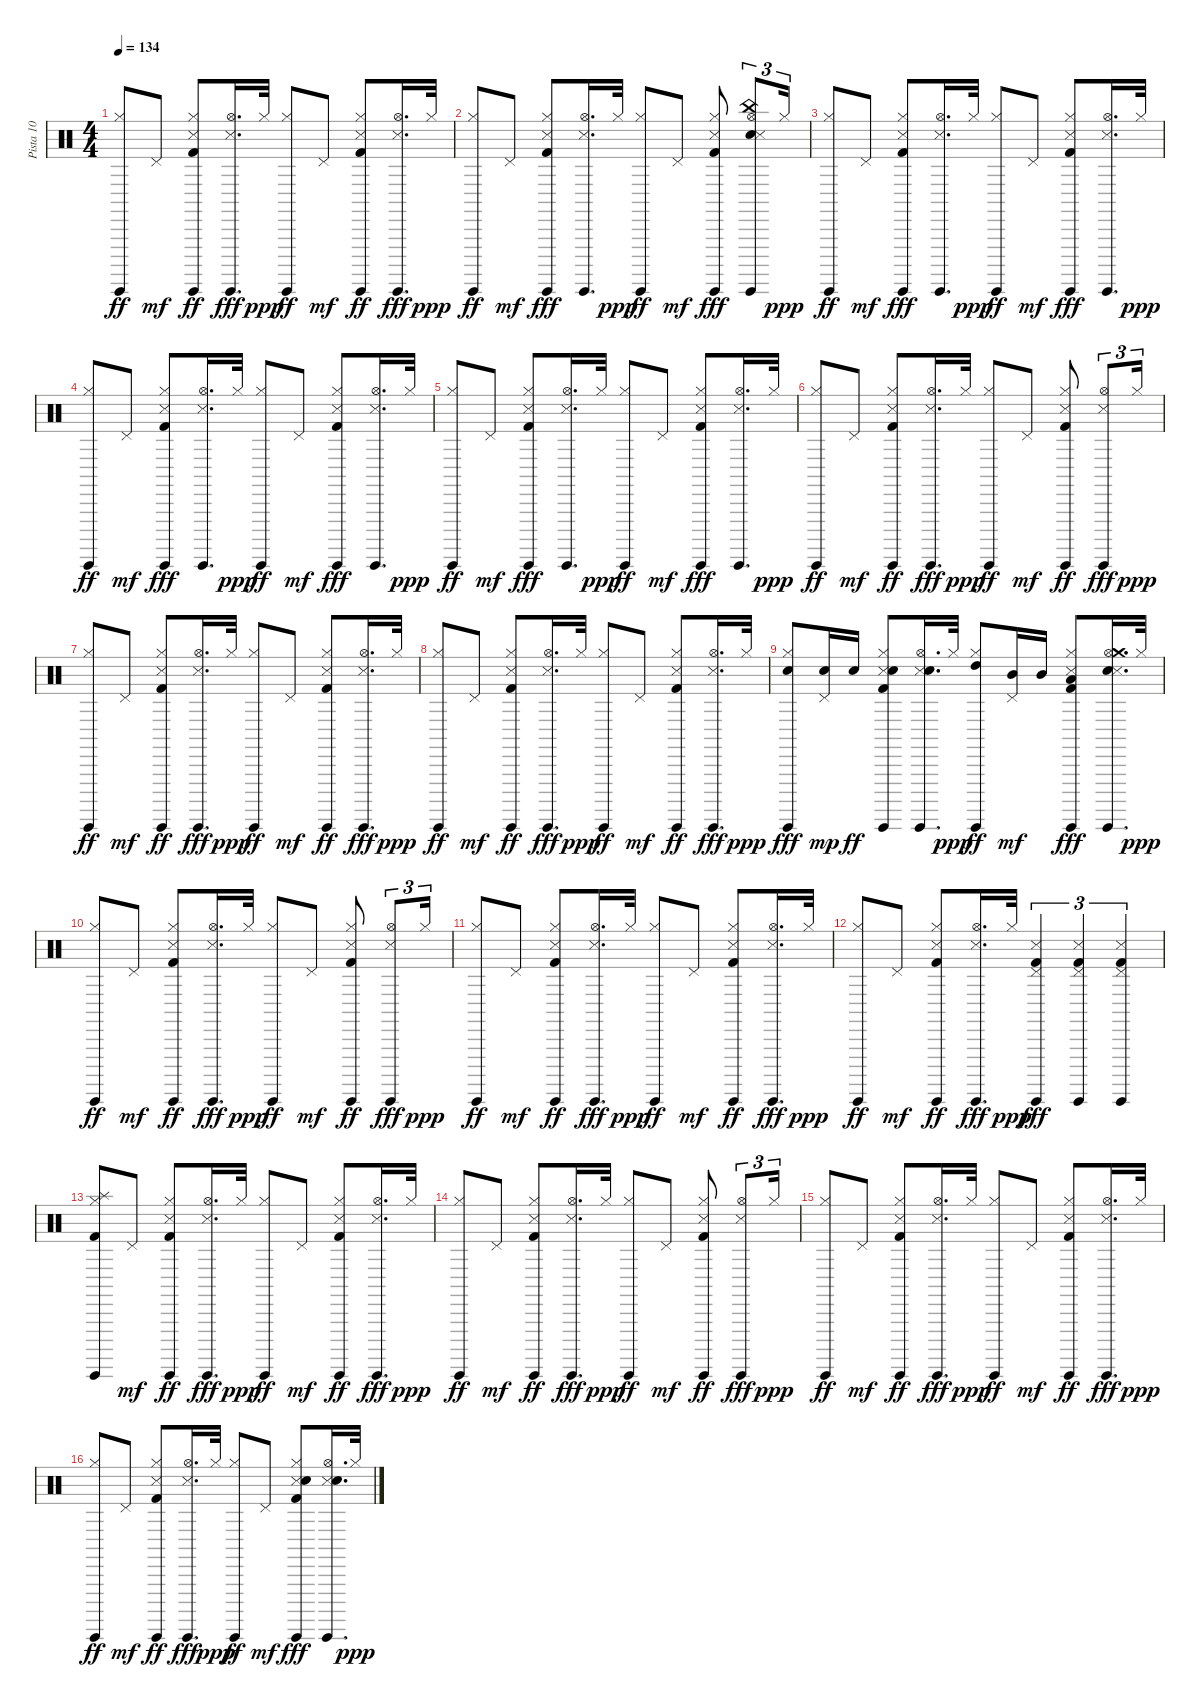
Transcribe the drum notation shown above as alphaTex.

\track ("Pista 10" "Pista 10") {instrument percussion}
\staff {score}
\articulation defaults
\ts (4 4)
\tempo 134
\clef neutral
\ks c
("Guiro (hit)" "Hi-Hat (closed)").8{dy ff} "Pedal Hi-Hat (hit)".8{dy mf} ("Guiro (hit)" "Hi-Hat (closed)" "Snare (side stick) 3" "Kick (hit) 2").8{dy ff} ("Guiro (hit)" "Hi-Hat (open)" "Snare (side stick) 3").16{d dy fff} "Hi-Hat (closed)".32{dy ppp} ("Guiro (hit)" "Hi-Hat (closed)").8{dy ff} "Pedal Hi-Hat (hit)".8{dy mf} ("Guiro (hit)" "Hi-Hat (closed)" "Snare (side stick) 3" "Kick (hit) 2").8{dy ff} ("Guiro (hit)" "Hi-Hat (open)" "Snare (side stick) 3").16{d dy fff} "Hi-Hat (closed)".32{dy ppp} |
("Guiro (hit)" "Hi-Hat (closed)").8{dy ff} "Pedal Hi-Hat (hit)".8{dy mf} ("Guiro (hit)" "Hi-Hat (closed)" "Kick (hit) 2" "Snare (side stick) 3").8{dy fff} ("Guiro (hit)" "Hi-Hat (open)" "Snare (side stick) 3").16{d} "Hi-Hat (closed)".32{dy ppp} ("Guiro (hit)" "Hi-Hat (closed)").8{dy ff} "Pedal Hi-Hat (hit)".8{dy mf} ("Guiro (hit)" "Hi-Hat (closed)" "Kick (hit) 2" "Snare (side stick) 3").8{dy fff} ("Snare (hit) 2" "Guiro (hit)" "Hi-Hat (open)" "China (hit)" "Snare (side stick) 3").8{tu (3 2)} "Hi-Hat (closed)".16{tu (3 2) dy ppp} |
("Guiro (hit)" "Hi-Hat (closed)").8{dy ff} "Pedal Hi-Hat (hit)".8{dy mf} ("Guiro (hit)" "Hi-Hat (closed)" "Kick (hit) 2" "Snare (side stick) 3").8{dy fff} ("Guiro (hit)" "Hi-Hat (open)" "Snare (side stick) 3").16{d} "Hi-Hat (closed)".32{dy ppp} ("Guiro (hit)" "Hi-Hat (closed)").8{dy ff} "Pedal Hi-Hat (hit)".8{dy mf} ("Guiro (hit)" "Hi-Hat (closed)" "Kick (hit) 2" "Snare (side stick) 3").8{dy fff} ("Guiro (hit)" "Hi-Hat (open)" "Snare (side stick) 3").16{d} "Hi-Hat (closed)".32{dy ppp} |
("Guiro (hit)" "Hi-Hat (closed)").8{dy ff} "Pedal Hi-Hat (hit)".8{dy mf} ("Guiro (hit)" "Hi-Hat (closed)" "Kick (hit) 2" "Snare (side stick) 3").8{dy fff} ("Guiro (hit)" "Hi-Hat (open)" "Snare (side stick) 3").16{d} "Hi-Hat (closed)".32{dy ppp} ("Guiro (hit)" "Hi-Hat (closed)").8{dy ff} "Pedal Hi-Hat (hit)".8{dy mf} ("Guiro (hit)" "Hi-Hat (closed)" "Kick (hit) 2" "Snare (side stick) 3").8{dy fff} ("Guiro (hit)" "Hi-Hat (open)" "Snare (side stick) 3").16{d} "Hi-Hat (closed)".32{dy ppp} |
("Guiro (hit)" "Hi-Hat (closed)").8{dy ff} "Pedal Hi-Hat (hit)".8{dy mf} ("Guiro (hit)" "Hi-Hat (closed)" "Kick (hit) 2" "Snare (side stick) 3").8{dy fff} ("Guiro (hit)" "Hi-Hat (open)" "Snare (side stick) 3").16{d} "Hi-Hat (closed)".32{dy ppp} ("Guiro (hit)" "Hi-Hat (closed)").8{dy ff} "Pedal Hi-Hat (hit)".8{dy mf} ("Guiro (hit)" "Hi-Hat (closed)" "Kick (hit) 2" "Snare (side stick) 3").8{dy fff} ("Guiro (hit)" "Hi-Hat (open)" "Snare (side stick) 3").16{d} "Hi-Hat (closed)".32{dy ppp} |
("Guiro (hit)" "Hi-Hat (closed)").8{dy ff} "Pedal Hi-Hat (hit)".8{dy mf} ("Guiro (hit)" "Hi-Hat (closed)" "Snare (side stick) 3" "Kick (hit) 2").8{dy ff} ("Guiro (hit)" "Hi-Hat (open)" "Snare (side stick) 3").16{d dy fff} "Hi-Hat (closed)".32{dy ppp} ("Guiro (hit)" "Hi-Hat (closed)").8{dy ff} "Pedal Hi-Hat (hit)".8{dy mf} ("Guiro (hit)" "Hi-Hat (closed)" "Snare (side stick) 3" "Kick (hit) 2").8{dy ff} ("Guiro (hit)" "Hi-Hat (open)" "Snare (side stick) 3").8{tu (3 2) dy fff} "Hi-Hat (closed)".16{tu (3 2) dy ppp} |
("Guiro (hit)" "Hi-Hat (closed)").8{dy ff} "Pedal Hi-Hat (hit)".8{dy mf} ("Guiro (hit)" "Hi-Hat (closed)" "Snare (side stick) 3" "Kick (hit) 2").8{dy ff} ("Guiro (hit)" "Hi-Hat (open)" "Snare (side stick) 3").16{d dy fff} "Hi-Hat (closed)".32{dy ppp} ("Guiro (hit)" "Hi-Hat (closed)").8{dy ff} "Pedal Hi-Hat (hit)".8{dy mf} ("Guiro (hit)" "Hi-Hat (closed)" "Snare (side stick) 3" "Kick (hit) 2").8{dy ff} ("Guiro (hit)" "Hi-Hat (open)" "Snare (side stick) 3").16{d dy fff} "Hi-Hat (closed)".32{dy ppp} |
("Guiro (hit)" "Hi-Hat (closed)").8{dy ff} "Pedal Hi-Hat (hit)".8{dy mf} ("Guiro (hit)" "Hi-Hat (closed)" "Snare (side stick) 3" "Kick (hit) 2").8{dy ff} ("Guiro (hit)" "Hi-Hat (open)" "Snare (side stick) 3").16{d dy fff} "Hi-Hat (closed)".32{dy ppp} ("Guiro (hit)" "Hi-Hat (closed)").8{dy ff} "Pedal Hi-Hat (hit)".8{dy mf} ("Guiro (hit)" "Hi-Hat (closed)" "Snare (side stick) 3" "Kick (hit) 2").8{dy ff} ("Guiro (hit)" "Hi-Hat (open)" "Snare (side stick) 3").16{d dy fff} "Hi-Hat (closed)".32{dy ppp} |
("Guiro (hit)" "Hi-Hat (closed)" "Electric Snare (hit)").8{dy fff} ("Pedal Hi-Hat (hit)" "Electric Snare (hit)").16{dy mp} "Electric Snare (hit)".16{dy ff} ("Guiro (hit)" "Hi-Hat (closed)" "Snare (side stick) 3" "Kick (hit) 2" "Electric Snare (hit)").8 ("Guiro (hit)" "Hi-Hat (open)" "Snare (side stick) 3" "Electric Snare (hit)").16{d} "Hi-Hat (closed)".32{dy ppp} ("Guiro (hit)" "Hi-Hat (closed)" "High Tom (hit)").8{dy ff} ("Pedal Hi-Hat (hit)" "Mid Tom (hit)").16{dy mf} "Mid Tom (hit)".16 ("Guiro (hit)" "Hi-Hat (closed)" "Snare (side stick) 3" "Kick (hit) 2" "Low Tom (hit)").8{dy fff} ("Electric Snare (hit)" "Guiro (hit)" "Hi-Hat (open)" "Snare (side stick) 3" "Crash medium (hit)").16{d} "Hi-Hat (closed)".32{dy ppp} |
("Hi-Hat (closed)" "Guiro (hit)").8{dy ff} "Pedal Hi-Hat (hit)".8{dy mf} ("Hi-Hat (closed)" "Guiro (hit)" "Snare (side stick) 3" "Kick (hit) 2").8{dy ff} ("Hi-Hat (open)" "Guiro (hit)" "Snare (side stick) 3").16{d dy fff} "Hi-Hat (closed)".32{dy ppp} ("Hi-Hat (closed)" "Guiro (hit)").8{dy ff} "Pedal Hi-Hat (hit)".8{dy mf} ("Hi-Hat (closed)" "Guiro (hit)" "Snare (side stick) 3" "Kick (hit) 2").8{dy ff} ("Hi-Hat (open)" "Guiro (hit)" "Snare (side stick) 3").8{tu (3 2) dy fff} "Hi-Hat (closed)".16{tu (3 2) dy ppp} |
("Hi-Hat (closed)" "Guiro (hit)").8{dy ff} "Pedal Hi-Hat (hit)".8{dy mf} ("Hi-Hat (closed)" "Guiro (hit)" "Snare (side stick) 3" "Kick (hit) 2").8{dy ff} ("Hi-Hat (open)" "Guiro (hit)" "Snare (side stick) 3").16{d dy fff} "Hi-Hat (closed)".32{dy ppp} ("Hi-Hat (closed)" "Guiro (hit)").8{dy ff} "Pedal Hi-Hat (hit)".8{dy mf} ("Hi-Hat (closed)" "Guiro (hit)" "Snare (side stick) 3" "Kick (hit) 2").8{dy ff} ("Hi-Hat (open)" "Guiro (hit)" "Snare (side stick) 3").16{d dy fff} "Hi-Hat (closed)".32{dy ppp} |
("Hi-Hat (closed)" "Guiro (hit)").8{dy ff} "Pedal Hi-Hat (hit)".8{dy mf} ("Hi-Hat (closed)" "Guiro (hit)" "Snare (side stick) 3" "Kick (hit) 2").8{dy ff} ("Hi-Hat (open)" "Guiro (hit)" "Snare (side stick) 3").16{d dy fff} "Hi-Hat (closed)".32{dy ppp} ("Snare (side stick) 3" "Kick (hit) 2" "Pedal Hi-Hat (hit)" "Guiro (hit)").4{tu (3 2) dy fff} ("Snare (side stick) 3" "Kick (hit) 2" "Pedal Hi-Hat (hit)" "Guiro (hit)").4{tu (3 2)} ("Snare (side stick) 3" "Kick (hit) 2" "Pedal Hi-Hat (hit)" "Guiro (hit)").4{tu (3 2)} |
("Hi-Hat (closed)" "Guiro (hit)" "Splash (hit)" "Kick (hit) 2").8 "Pedal Hi-Hat (hit)".8{dy mf} ("Hi-Hat (closed)" "Guiro (hit)" "Snare (side stick) 3" "Kick (hit) 2").8{dy ff} ("Hi-Hat (open)" "Guiro (hit)" "Snare (side stick) 3").16{d dy fff} "Hi-Hat (closed)".32{dy ppp} ("Hi-Hat (closed)" "Guiro (hit)").8{dy ff} "Pedal Hi-Hat (hit)".8{dy mf} ("Hi-Hat (closed)" "Guiro (hit)" "Snare (side stick) 3" "Kick (hit) 2").8{dy ff} ("Hi-Hat (open)" "Guiro (hit)" "Snare (side stick) 3").16{d dy fff} "Hi-Hat (closed)".32{dy ppp} |
("Hi-Hat (closed)" "Guiro (hit)").8{dy ff} "Pedal Hi-Hat (hit)".8{dy mf} ("Hi-Hat (closed)" "Guiro (hit)" "Snare (side stick) 3" "Kick (hit) 2").8{dy ff} ("Hi-Hat (open)" "Guiro (hit)" "Snare (side stick) 3").16{d dy fff} "Hi-Hat (closed)".32{dy ppp} ("Hi-Hat (closed)" "Guiro (hit)").8{dy ff} "Pedal Hi-Hat (hit)".8{dy mf} ("Hi-Hat (closed)" "Guiro (hit)" "Snare (side stick) 3" "Kick (hit) 2").8{dy ff} ("Hi-Hat (open)" "Guiro (hit)" "Snare (side stick) 3").8{tu (3 2) dy fff} "Hi-Hat (closed)".16{tu (3 2) dy ppp} |
("Hi-Hat (closed)" "Guiro (hit)").8{dy ff} "Pedal Hi-Hat (hit)".8{dy mf} ("Hi-Hat (closed)" "Guiro (hit)" "Snare (side stick) 3" "Kick (hit) 2").8{dy ff} ("Hi-Hat (open)" "Guiro (hit)" "Snare (side stick) 3").16{d dy fff} "Hi-Hat (closed)".32{dy ppp} ("Hi-Hat (closed)" "Guiro (hit)").8{dy ff} "Pedal Hi-Hat (hit)".8{dy mf} ("Hi-Hat (closed)" "Guiro (hit)" "Snare (side stick) 3" "Kick (hit) 2").8{dy ff} ("Hi-Hat (open)" "Guiro (hit)" "Snare (side stick) 3").16{d dy fff} "Hi-Hat (closed)".32{dy ppp} |
("Hi-Hat (closed)" "Guiro (hit)").8{dy ff} "Pedal Hi-Hat (hit)".8{dy mf} ("Hi-Hat (closed)" "Guiro (hit)" "Snare (side stick) 3" "Kick (hit) 2").8{dy ff} ("Hi-Hat (open)" "Guiro (hit)" "Snare (side stick) 3").16{d dy fff} "Hi-Hat (closed)".32{dy ppp} ("Hi-Hat (closed)" "Guiro (hit)").8{dy ff} "Pedal Hi-Hat (hit)".8{dy mf} ("Hi-Hat (closed)" "Guiro (hit)" "Snare (side stick) 3" "Kick (hit) 2" "Electric Snare (hit)").8{dy fff} ("Hi-Hat (open)" "Guiro (hit)" "Snare (side stick) 3" "Electric Snare (hit)").16{d} "Hi-Hat (closed)".32{dy ppp}
